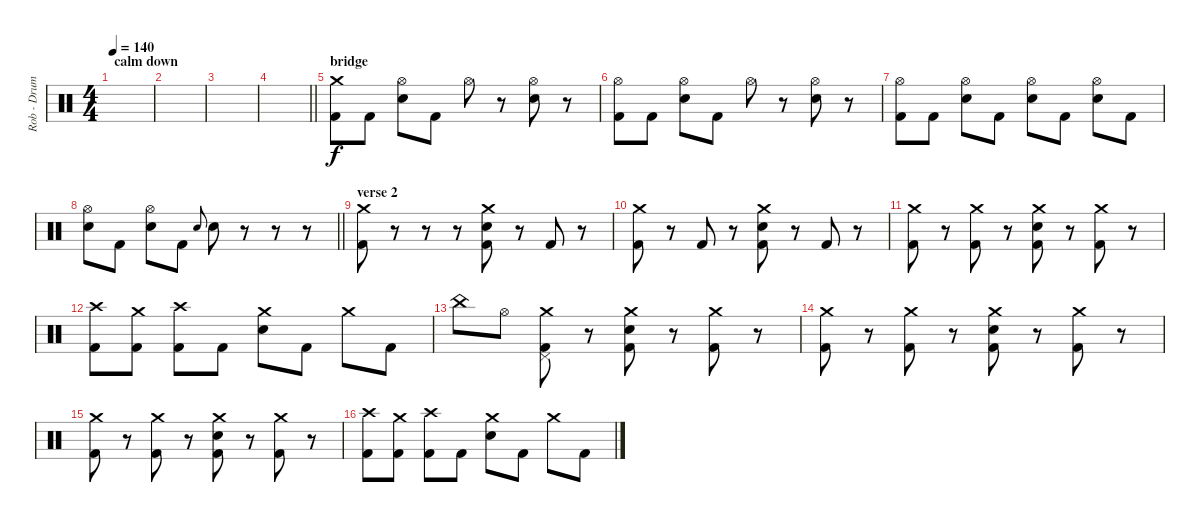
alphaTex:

\track ("Rob - Drums" "Rob - Drum") {instrument percussion}
\staff {score}
\articulation defaults
\ts (4 4)
\section ("" "calm down")
\tempo 140
\clef neutral
\ks c
|
|
|
\barLineRight lightlight
|
\section ("" "bridge")
("Crash medium (hit)" "Kick (hit) 2").8{dy f} "Kick (hit) 2".8 ("Hi-Hat (open)" "Electric Snare (hit)").8 "Kick (hit) 2".8 "Hi-Hat (open)".8 r.8 ("Hi-Hat (open)" "Electric Snare (hit)").8 r.8 |
("Hi-Hat (open)" "Kick (hit) 2").8 "Kick (hit) 2".8 ("Hi-Hat (open)" "Electric Snare (hit)").8 "Kick (hit) 2".8 "Hi-Hat (open)".8 r.8 ("Hi-Hat (open)" "Electric Snare (hit)").8 r.8 |
("Hi-Hat (open)" "Kick (hit) 2").8 "Kick (hit) 2".8 ("Hi-Hat (open)" "Electric Snare (hit)").8 "Kick (hit) 2".8 ("Hi-Hat (open)" "Electric Snare (hit)").8 "Kick (hit) 2".8 ("Hi-Hat (open)" "Electric Snare (hit)").8 "Kick (hit) 2".8 |
\barLineRight lightlight
("Hi-Hat (open)" "Electric Snare (hit)").8 "Kick (hit) 2".8 ("Hi-Hat (open)" "Electric Snare (hit)").8 "Kick (hit) 2".8 "Electric Snare (hit)".8{gr onbeat} "Electric Snare (hit)".8 r.8 r.8 r.8 |
\section ("" "verse 2")
("Crash medium (hit)" "Kick (hit) 2").8 r.8{volume 0} r.8{volume 15} r.8 ("Crash medium (hit)" "Electric Snare (hit)" "Kick (hit) 2").8 r.8 "Kick (hit) 2".8 r.8 |
("Crash medium (hit)" "Kick (hit) 2").8 r.8 "Kick (hit) 2".8 r.8 ("Crash medium (hit)" "Electric Snare (hit)" "Kick (hit) 2").8 r.8 "Kick (hit) 2".8 r.8 |
("Crash medium (hit)" "Kick (hit) 2").8 r.8 ("Crash medium (hit)" "Kick (hit) 2").8 r.8 ("Crash medium (hit)" "Electric Snare (hit)" "Kick (hit) 2").8 r.8 ("Crash medium (hit)" "Kick (hit) 2").8 r.8 |
("Crash high (hit)" "Kick (hit) 2").8 ("Crash medium (hit)" "Kick (hit) 2").8 ("Crash high (hit)" "Kick (hit) 2").8 "Kick (hit) 2".8 ("Crash medium (hit)" "Electric Snare (hit)").8 "Kick (hit) 2".8 "Crash medium (hit)".8 "Kick (hit) 2".8 |
"China (hit)".8 "Hi-Hat (open)".8 ("Crash medium (hit)" "Pedal Hi-Hat (hit)" "Kick (hit) 2").8 r.8 ("Crash medium (hit)" "Electric Snare (hit)" "Kick (hit) 2").8 r.8 ("Crash medium (hit)" "Kick (hit) 2").8 r.8 |
("Crash medium (hit)" "Kick (hit) 2").8 r.8 ("Crash medium (hit)" "Kick (hit) 2").8 r.8 ("Crash medium (hit)" "Electric Snare (hit)" "Kick (hit) 2").8 r.8 ("Crash medium (hit)" "Kick (hit) 2").8 r.8 |
("Crash medium (hit)" "Kick (hit) 2").8 r.8 ("Crash medium (hit)" "Kick (hit) 2").8 r.8 ("Crash medium (hit)" "Electric Snare (hit)" "Kick (hit) 2").8 r.8 ("Crash medium (hit)" "Kick (hit) 2").8 r.8 |
("Crash high (hit)" "Kick (hit) 2").8 ("Crash medium (hit)" "Kick (hit) 2").8 ("Crash high (hit)" "Kick (hit) 2").8 "Kick (hit) 2".8 ("Crash medium (hit)" "Electric Snare (hit)").8 "Kick (hit) 2".8 "Crash medium (hit)".8 "Kick (hit) 2".8
